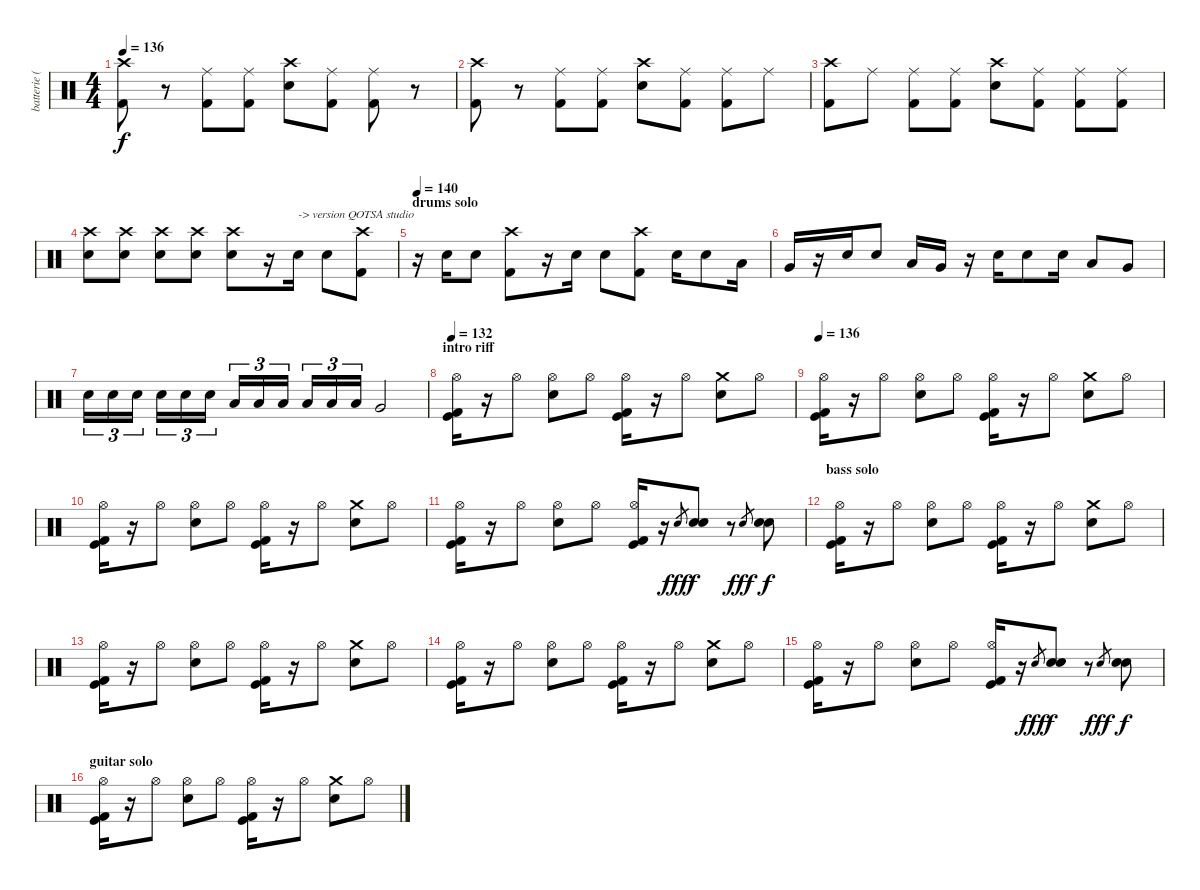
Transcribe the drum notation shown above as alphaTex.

\track ("batterie (J.Castillo)" "batterie (") {instrument percussion}
\staff {score}
\articulation defaults
\ts (4 4)
\tempo 136
\clef neutral
\ks c
("Kick (hit) 2" "Crash high (hit)").8{dy f} r.8 ("Kick (hit) 2" "Ride (middle)").8 ("Kick (hit) 2" "Ride (middle)").8 ("Electric Snare (hit)" "Crash high (hit)").8 ("Kick (hit) 2" "Ride (middle)").8 ("Kick (hit) 2" "Ride (middle)").8 r.8 |
("Kick (hit) 2" "Crash high (hit)").8 r.8 ("Kick (hit) 2" "Ride (middle)").8 ("Kick (hit) 2" "Ride (middle)").8 ("Electric Snare (hit)" "Crash high (hit)").8 ("Kick (hit) 2" "Ride (middle)").8 ("Kick (hit) 2" "Ride (middle)").8 "Ride (middle)".8 |
("Kick (hit) 2" "Crash high (hit)").8 "Ride (middle)".8 ("Kick (hit) 2" "Ride (middle)").8 ("Kick (hit) 2" "Ride (middle)").8 ("Electric Snare (hit)" "Crash high (hit)").8 ("Kick (hit) 2" "Ride (middle)").8 ("Kick (hit) 2" "Ride (middle)").8 ("Kick (hit) 2" "Ride (middle)").8 |
("Electric Snare (hit)" "Crash high (hit)").8 ("Electric Snare (hit)" "Crash high (hit)").8 ("Electric Snare (hit)" "Crash high (hit)").8 ("Electric Snare (hit)" "Crash high (hit)").8 ("Electric Snare (hit)" "Crash high (hit)").8 r.16 "Electric Snare (hit)".16{txt "-> version QOTSA studio"} "Electric Snare (hit)".8 ("Kick (hit) 2" "Crash high (hit)").8 |
\section ("" "drums solo")
\tempo 140
r.16 "Electric Snare (hit)".16 "Electric Snare (hit)".8 ("Kick (hit) 2" "Crash high (hit)").8 r.16 "Electric Snare (hit)".16 "Electric Snare (hit)".8 ("Kick (hit) 2" "Crash high (hit)").8 "Electric Snare (hit)".16 "Electric Snare (hit)".8 "Low Tom (hit)".16 |
"Very Low Tom (hit)".16 r.16 "Electric Snare (hit)".16 "Electric Snare (hit)".8 "Low Tom (hit)".16 "Very Low Tom (hit)".16 r.16 "Electric Snare (hit)".16 "Electric Snare (hit)".8 "Electric Snare (hit)".16 "Low Tom (hit)".8 "Very Low Tom (hit)".8 |
"Electric Snare (hit)".16{tu (3 2)} "Electric Snare (hit)".16{tu (3 2)} "Electric Snare (hit)".16{tu (3 2)} "Electric Snare (hit)".16{tu (3 2)} "Electric Snare (hit)".16{tu (3 2)} "Electric Snare (hit)".16{tu (3 2)} "Low Tom (hit)".16{tu (3 2)} "Low Tom (hit)".16{tu (3 2)} "Low Tom (hit)".16{tu (3 2)} "Low Tom (hit)".16{tu (3 2)} "Low Tom (hit)".16{tu (3 2)} "Low Tom (hit)".16{tu (3 2)} "Very Low Tom (hit)".2 |
\section ("" "intro riff")
\tempo 132
("Hi-Hat (open)" "Kick (hit) 2" "Kick (hit)").16 r.16 "Hi-Hat (open)".8 ("Hi-Hat (open)" "Electric Snare (hit)").8 "Hi-Hat (open)".8 ("Hi-Hat (open)" "Kick (hit) 2" "Kick (hit)").16 r.16 "Hi-Hat (open)".8 ("Crash medium (hit)" "Electric Snare (hit)").8 "Hi-Hat (open)".8 |
\tempo 136
("Hi-Hat (open)" "Kick (hit) 2" "Kick (hit)").16 r.16 "Hi-Hat (open)".8 ("Hi-Hat (open)" "Electric Snare (hit)").8 "Hi-Hat (open)".8 ("Hi-Hat (open)" "Kick (hit) 2" "Kick (hit)").16 r.16 "Hi-Hat (open)".8 ("Crash medium (hit)" "Electric Snare (hit)").8 "Hi-Hat (open)".8 |
("Hi-Hat (open)" "Kick (hit) 2" "Kick (hit)").16 r.16 "Hi-Hat (open)".8 ("Hi-Hat (open)" "Electric Snare (hit)").8 "Hi-Hat (open)".8 ("Hi-Hat (open)" "Kick (hit) 2" "Kick (hit)").16 r.16 "Hi-Hat (open)".8 ("Crash medium (hit)" "Electric Snare (hit)").8 "Hi-Hat (open)".8 |
("Hi-Hat (open)" "Kick (hit) 2" "Kick (hit)").16 r.16 "Hi-Hat (open)".8 ("Hi-Hat (open)" "Electric Snare (hit)").8 "Hi-Hat (open)".8 ("Hi-Hat (open)" "Kick (hit) 2" "Kick (hit)").16 r.16 "Electric Snare (hit)"{h}.8{gr dy fff} ("Electric Snare (hit)" "Electric Snare (hit)").8{dy f} r.8 "Electric Snare (hit)".8{gr dy fff} ("Electric Snare (hit)" "Electric Snare (hit)").8{dy f} |
\section ("" "bass solo")
("Hi-Hat (open)" "Kick (hit) 2" "Kick (hit)").16 r.16 "Hi-Hat (open)".8 ("Hi-Hat (open)" "Electric Snare (hit)").8 "Hi-Hat (open)".8 ("Hi-Hat (open)" "Kick (hit) 2" "Kick (hit)").16 r.16 "Hi-Hat (open)".8 ("Crash medium (hit)" "Electric Snare (hit)").8 "Hi-Hat (open)".8 |
("Hi-Hat (open)" "Kick (hit) 2" "Kick (hit)").16 r.16 "Hi-Hat (open)".8 ("Hi-Hat (open)" "Electric Snare (hit)").8 "Hi-Hat (open)".8 ("Hi-Hat (open)" "Kick (hit) 2" "Kick (hit)").16 r.16 "Hi-Hat (open)".8 ("Crash medium (hit)" "Electric Snare (hit)").8 "Hi-Hat (open)".8 |
("Hi-Hat (open)" "Kick (hit) 2" "Kick (hit)").16 r.16 "Hi-Hat (open)".8 ("Hi-Hat (open)" "Electric Snare (hit)").8 "Hi-Hat (open)".8 ("Hi-Hat (open)" "Kick (hit) 2" "Kick (hit)").16 r.16 "Hi-Hat (open)".8 ("Crash medium (hit)" "Electric Snare (hit)").8 "Hi-Hat (open)".8 |
("Hi-Hat (open)" "Kick (hit) 2" "Kick (hit)").16 r.16 "Hi-Hat (open)".8 ("Hi-Hat (open)" "Electric Snare (hit)").8 "Hi-Hat (open)".8 ("Hi-Hat (open)" "Kick (hit) 2" "Kick (hit)").16 r.16 "Electric Snare (hit)"{h}.8{gr dy fff} ("Electric Snare (hit)" "Electric Snare (hit)").8{dy f} r.8 "Electric Snare (hit)".8{gr dy fff} ("Electric Snare (hit)" "Electric Snare (hit)").8{dy f} |
\section ("" "guitar solo")
("Hi-Hat (open)" "Kick (hit) 2" "Kick (hit)").16 r.16 "Hi-Hat (open)".8 ("Hi-Hat (open)" "Electric Snare (hit)").8 "Hi-Hat (open)".8 ("Hi-Hat (open)" "Kick (hit) 2" "Kick (hit)").16 r.16 "Hi-Hat (open)".8 ("Crash medium (hit)" "Electric Snare (hit)").8 "Hi-Hat (open)".8
